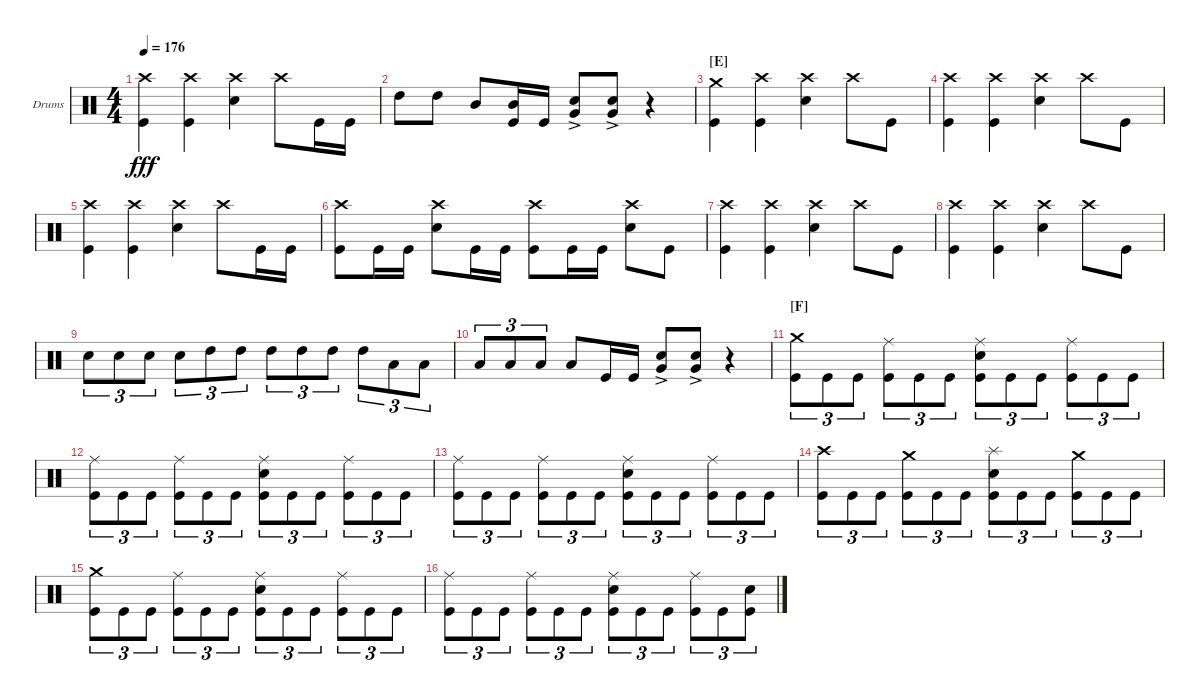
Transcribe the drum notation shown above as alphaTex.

\defaultSystemsLayout 4
\bracketExtendMode groupsimilarinstruments
\firstSystemTrackNameOrientation horizontal
\otherSystemsTrackNameOrientation horizontal
\track ("Drums" "Drums") {instrument percussion}
\staff {score}
\articulation defaults
\ts (4 4)
\tempo 176
\clef neutral
\ks c
("Kick (hit)" "Crash high (hit)").4{dy fff} ("Kick (hit)" "Crash high (hit)").4 ("Snare (hit) 2" "Crash high (hit)").4 "Crash high (hit)".8 "Kick (hit)".16 "Kick (hit)".16 |
"High Tom (hit)".8 "High Tom (hit)".8 "Mid Tom (hit)".8 ("Mid Tom (hit)" "Kick (hit)").16 "Kick (hit)".16 ("Very Low Tom (hit)"{ac} "Snare (hit) 2"{ac}).8 ("Very Low Tom (hit)"{ac} "Snare (hit) 2"{ac}).8 r.4 |
\section ("E" "")
("Kick (hit)" "Crash medium (hit)").4 ("Kick (hit)" "Crash high (hit)").4 ("Snare (hit) 2" "Crash high (hit)").4 "Crash high (hit)".8 "Kick (hit)".8 |
("Kick (hit)" "Crash high (hit)").4 ("Kick (hit)" "Crash high (hit)").4 ("Snare (hit) 2" "Crash high (hit)").4 "Crash high (hit)".8 "Kick (hit)".8 |
("Kick (hit)" "Crash high (hit)").4 ("Kick (hit)" "Crash high (hit)").4 ("Snare (hit) 2" "Crash high (hit)").4 "Crash high (hit)".8 "Kick (hit)".16 "Kick (hit)".16 |
("Crash high (hit)" "Kick (hit)").8 "Kick (hit)".16 "Kick (hit)".16 ("Snare (hit) 2" "Crash high (hit)").8 "Kick (hit)".16 "Kick (hit)".16 ("Crash high (hit)" "Kick (hit)").8 "Kick (hit)".16 "Kick (hit)".16 ("Snare (hit) 2" "Crash high (hit)").8 "Kick (hit)".8 |
("Kick (hit)" "Crash high (hit)").4 ("Kick (hit)" "Crash high (hit)").4 ("Snare (hit) 2" "Crash high (hit)").4 "Crash high (hit)".8 "Kick (hit)".8 |
("Kick (hit)" "Crash high (hit)").4 ("Kick (hit)" "Crash high (hit)").4 ("Snare (hit) 2" "Crash high (hit)").4 "Crash high (hit)".8 "Kick (hit)".8 |
"Snare (hit) 2".8{tu (3 2)} "Snare (hit) 2".8{tu (3 2)} "Snare (hit) 2".8{tu (3 2)} "Snare (hit) 2".8{tu (3 2)} "High Tom (hit)".8{tu (3 2)} "High Tom (hit)".8{tu (3 2)} "High Tom (hit)".8{tu (3 2)} "High Tom (hit)".8{tu (3 2)} "High Tom (hit)".8{tu (3 2)} "High Tom (hit)".8{tu (3 2)} "Low Tom (hit)".8{tu (3 2)} "Low Tom (hit)".8{tu (3 2)} |
"Low Tom (hit)".8{tu (3 2)} "Low Tom (hit)".8{tu (3 2)} "Low Tom (hit)".8{tu (3 2)} "Low Tom (hit)".8 "Kick (hit)".16 "Kick (hit)".16 ("Very Low Tom (hit)"{ac} "Snare (hit) 2"{ac}).8 ("Very Low Tom (hit)"{ac} "Snare (hit) 2"{ac}).8 r.4 |
\section ("F" "")
("Crash medium (hit)" "Kick (hit)").8{tu (3 2)} "Kick (hit)".8{tu (3 2)} "Kick (hit)".8{tu (3 2)} ("Kick (hit)" "Ride (middle)").8{tu (3 2)} "Kick (hit)".8{tu (3 2)} "Kick (hit)".8{tu (3 2)} ("Kick (hit)" "Ride (middle)" "Snare (hit) 2").8{tu (3 2)} "Kick (hit)".8{tu (3 2)} "Kick (hit)".8{tu (3 2)} ("Kick (hit)" "Ride (middle)").8{tu (3 2)} "Kick (hit)".8{tu (3 2)} "Kick (hit)".8{tu (3 2)} |
("Kick (hit)" "Ride (middle)").8{tu (3 2)} "Kick (hit)".8{tu (3 2)} "Kick (hit)".8{tu (3 2)} ("Kick (hit)" "Ride (middle)").8{tu (3 2)} "Kick (hit)".8{tu (3 2)} "Kick (hit)".8{tu (3 2)} ("Kick (hit)" "Ride (middle)" "Snare (hit) 2").8{tu (3 2)} "Kick (hit)".8{tu (3 2)} "Kick (hit)".8{tu (3 2)} ("Kick (hit)" "Ride (middle)").8{tu (3 2)} "Kick (hit)".8{tu (3 2)} "Kick (hit)".8{tu (3 2)} |
("Kick (hit)" "Ride (middle)").8{tu (3 2)} "Kick (hit)".8{tu (3 2)} "Kick (hit)".8{tu (3 2)} ("Kick (hit)" "Ride (middle)").8{tu (3 2)} "Kick (hit)".8{tu (3 2)} "Kick (hit)".8{tu (3 2)} ("Kick (hit)" "Ride (middle)" "Snare (hit) 2").8{tu (3 2)} "Kick (hit)".8{tu (3 2)} "Kick (hit)".8{tu (3 2)} ("Kick (hit)" "Ride (middle)").8{tu (3 2)} "Kick (hit)".8{tu (3 2)} "Kick (hit)".8{tu (3 2)} |
("Kick (hit)" "Crash high (hit)").8{tu (3 2)} "Kick (hit)".8{tu (3 2)} "Kick (hit)".8{tu (3 2)} ("Kick (hit)" "Crash medium (hit)").8{tu (3 2)} "Kick (hit)".8{tu (3 2)} "Kick (hit)".8{tu (3 2)} ("Kick (hit)" "Snare (hit) 2" "Splash (hit)").8{tu (3 2)} "Kick (hit)".8{tu (3 2)} "Kick (hit)".8{tu (3 2)} ("Kick (hit)" "Crash medium (hit)").8{tu (3 2)} "Kick (hit)".8{tu (3 2)} "Kick (hit)".8{tu (3 2)} |
("Crash medium (hit)" "Kick (hit)").8{tu (3 2)} "Kick (hit)".8{tu (3 2)} "Kick (hit)".8{tu (3 2)} ("Kick (hit)" "Ride (middle)").8{tu (3 2)} "Kick (hit)".8{tu (3 2)} "Kick (hit)".8{tu (3 2)} ("Kick (hit)" "Ride (middle)" "Snare (hit) 2").8{tu (3 2)} "Kick (hit)".8{tu (3 2)} "Kick (hit)".8{tu (3 2)} ("Kick (hit)" "Ride (middle)").8{tu (3 2)} "Kick (hit)".8{tu (3 2)} "Kick (hit)".8{tu (3 2)} |
("Kick (hit)" "Ride (middle)").8{tu (3 2)} "Kick (hit)".8{tu (3 2)} "Kick (hit)".8{tu (3 2)} ("Kick (hit)" "Ride (middle)").8{tu (3 2)} "Kick (hit)".8{tu (3 2)} "Kick (hit)".8{tu (3 2)} ("Kick (hit)" "Ride (middle)" "Snare (hit) 2").8{tu (3 2)} "Kick (hit)".8{tu (3 2)} "Kick (hit)".8{tu (3 2)} ("Kick (hit)" "Ride (middle)").8{tu (3 2)} "Kick (hit)".8{tu (3 2)} ("Kick (hit)" "Snare (hit) 2").8{tu (3 2)}
